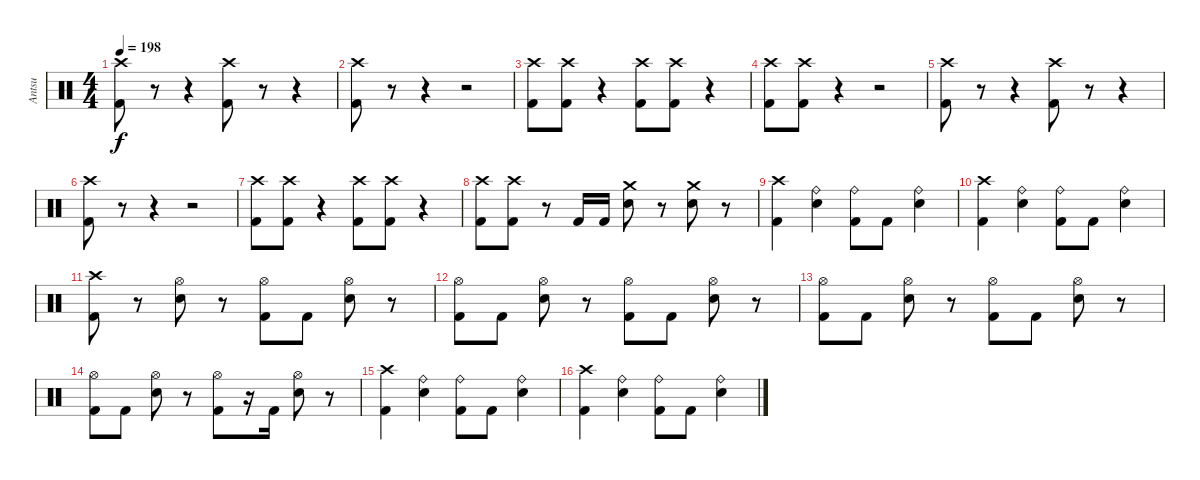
\track ("Antsu" "Antsu") {instrument percussion}
\staff {score}
\articulation defaults
\ts (4 4)
\tempo 198
\clef neutral
\ks c
("Crash high (hit)" "Kick (hit) 2").8{dy f} r.8 r.4 ("Crash high (hit)" "Kick (hit) 2").8 r.8 r.4 |
("Crash high (hit)" "Kick (hit) 2").8 r.8 r.4 r.2 |
("Crash high (hit)" "Kick (hit) 2").8 ("Crash high (hit)" "Kick (hit) 2").8 r.4 ("Crash high (hit)" "Kick (hit) 2").8 ("Crash high (hit)" "Kick (hit) 2").8 r.4 |
("Crash high (hit)" "Kick (hit) 2").8 ("Crash high (hit)" "Kick (hit) 2").8 r.4 r.2 |
("Crash high (hit)" "Kick (hit) 2").8 r.8 r.4 ("Crash high (hit)" "Kick (hit) 2").8 r.8 r.4 |
("Crash high (hit)" "Kick (hit) 2").8 r.8 r.4 r.2 |
("Crash high (hit)" "Kick (hit) 2").8 ("Crash high (hit)" "Kick (hit) 2").8 r.4 ("Crash high (hit)" "Kick (hit) 2").8 ("Crash high (hit)" "Kick (hit) 2").8 r.4 |
("Crash high (hit)" "Kick (hit) 2").8 ("Crash high (hit)" "Kick (hit) 2").8 r.8 "Kick (hit) 2".16 "Kick (hit) 2".16 ("Crash medium (hit)" "Snare (hit) 2").8 r.8 ("Crash medium (hit)" "Snare (hit) 2").8 r.8 |
("Crash high (hit)" "Kick (hit) 2").4 ("Ride (bell)" "Snare (hit) 2").4 ("Ride (bell)" "Kick (hit) 2").8 "Kick (hit) 2".8 ("Ride (bell)" "Snare (hit) 2").4 |
("Crash high (hit)" "Kick (hit) 2").4 ("Ride (bell)" "Snare (hit) 2").4 ("Ride (bell)" "Kick (hit) 2").8 "Kick (hit) 2".8 ("Ride (bell)" "Snare (hit) 2").4 |
("Crash high (hit)" "Kick (hit) 2").8 r.8 ("Hi-Hat (open)" "Snare (hit) 2").8 r.8 ("Hi-Hat (open)" "Kick (hit) 2").8 "Kick (hit) 2".8 ("Hi-Hat (open)" "Snare (hit) 2").8 r.8 |
("Hi-Hat (open)" "Kick (hit) 2").8 "Kick (hit) 2".8 ("Hi-Hat (open)" "Snare (hit) 2").8 r.8 ("Hi-Hat (open)" "Kick (hit) 2").8 "Kick (hit) 2".8 ("Hi-Hat (open)" "Snare (hit) 2").8 r.8 |
("Hi-Hat (open)" "Kick (hit) 2").8 "Kick (hit) 2".8 ("Hi-Hat (open)" "Snare (hit) 2").8 r.8 ("Hi-Hat (open)" "Kick (hit) 2").8 "Kick (hit) 2".8 ("Hi-Hat (open)" "Snare (hit) 2").8 r.8 |
("Hi-Hat (open)" "Kick (hit) 2").8 "Kick (hit) 2".8 ("Hi-Hat (open)" "Snare (hit) 2").8 r.8 ("Hi-Hat (open)" "Kick (hit) 2").8 r.16 "Kick (hit) 2".16 ("Hi-Hat (open)" "Snare (hit) 2").8 r.8 |
("Crash high (hit)" "Kick (hit) 2").4 ("Ride (bell)" "Snare (hit) 2").4 ("Ride (bell)" "Kick (hit) 2").8 "Kick (hit) 2".8 ("Ride (bell)" "Snare (hit) 2").4 |
("Crash high (hit)" "Kick (hit) 2").4 ("Ride (bell)" "Snare (hit) 2").4 ("Ride (bell)" "Kick (hit) 2").8 "Kick (hit) 2".8 ("Ride (bell)" "Snare (hit) 2").4
